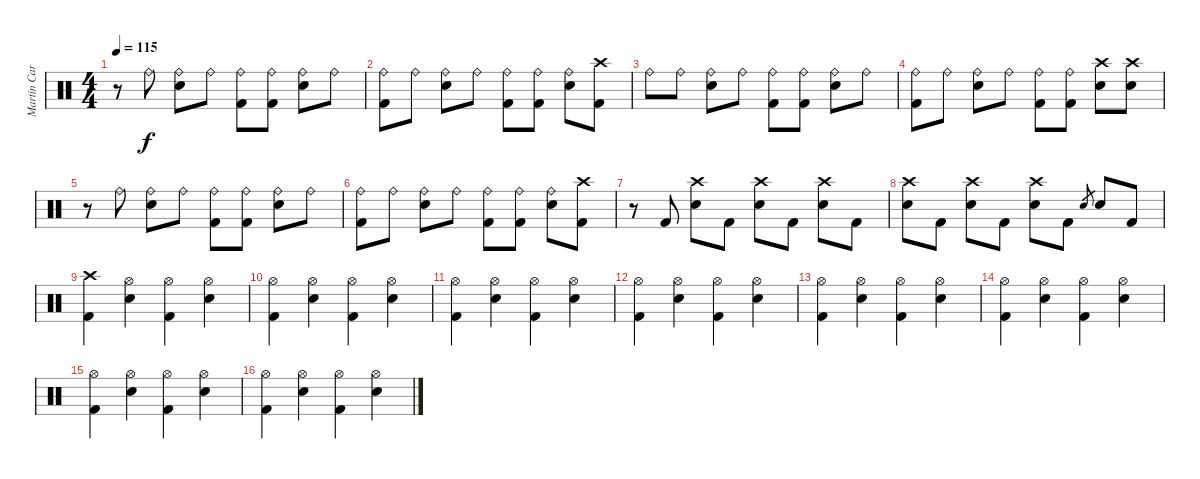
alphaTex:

\track ("Martín Carrizo" "Martín Car") {instrument percussion}
\staff {score}
\articulation defaults
\ts (4 4)
\tempo 115
\clef neutral
\ks c
r.8{dy f} "Ride (bell)".8 ("Ride (bell)" "Snare (hit) 2").8 "Ride (bell)".8 ("Ride (bell)" "Kick (hit) 2").8 ("Ride (bell)" "Kick (hit) 2").8 ("Ride (bell)" "Snare (hit) 2").8 "Ride (bell)".8 |
("Ride (bell)" "Kick (hit) 2").8 "Ride (bell)".8 ("Ride (bell)" "Snare (hit) 2").8 "Ride (bell)".8 ("Ride (bell)" "Kick (hit) 2").8 ("Ride (bell)" "Kick (hit) 2").8 ("Ride (bell)" "Snare (hit) 2").8 ("Crash high (hit)" "Kick (hit) 2").8 |
"Ride (bell)".8 "Ride (bell)".8 ("Ride (bell)" "Snare (hit) 2").8 "Ride (bell)".8 ("Ride (bell)" "Kick (hit) 2").8 ("Ride (bell)" "Kick (hit) 2").8 ("Ride (bell)" "Snare (hit) 2").8 "Ride (bell)".8 |
("Ride (bell)" "Kick (hit) 2").8 "Ride (bell)".8 ("Ride (bell)" "Snare (hit) 2").8 "Ride (bell)".8 ("Ride (bell)" "Kick (hit) 2").8 ("Ride (bell)" "Kick (hit) 2").8 ("Crash high (hit)" "Snare (hit) 2").8 ("Crash high (hit)" "Snare (hit) 2").8 |
r.8 "Ride (bell)".8 ("Ride (bell)" "Snare (hit) 2").8 "Ride (bell)".8 ("Ride (bell)" "Kick (hit) 2").8 ("Ride (bell)" "Kick (hit) 2").8 ("Ride (bell)" "Snare (hit) 2").8 "Ride (bell)".8 |
("Ride (bell)" "Kick (hit) 2").8 "Ride (bell)".8 ("Ride (bell)" "Snare (hit) 2").8 "Ride (bell)".8 ("Ride (bell)" "Kick (hit) 2").8 ("Ride (bell)" "Kick (hit) 2").8 ("Ride (bell)" "Snare (hit) 2").8 ("Crash high (hit)" "Kick (hit) 2").8 |
r.8 "Kick (hit) 2".8 ("Crash high (hit)" "Snare (hit) 2").8 "Kick (hit) 2".8 ("Crash high (hit)" "Snare (hit) 2").8 "Kick (hit) 2".8 ("Crash high (hit)" "Snare (hit) 2").8 "Kick (hit) 2".8 |
("Crash high (hit)" "Snare (hit) 2").8 "Kick (hit) 2".8 ("Crash high (hit)" "Snare (hit) 2").8 "Kick (hit) 2".8 ("Crash high (hit)" "Snare (hit) 2").8 "Kick (hit) 2".8 "Snare (hit) 2".8{gr} "Snare (hit) 2".8 "Kick (hit) 2".8 |
("Crash high (hit)" "Kick (hit) 2").4 ("Hi-Hat (open)" "Snare (hit) 2").4 ("Hi-Hat (open)" "Kick (hit) 2").4 ("Hi-Hat (open)" "Snare (hit) 2").4 |
("Hi-Hat (open)" "Kick (hit) 2").4 ("Hi-Hat (open)" "Snare (hit) 2").4 ("Hi-Hat (open)" "Kick (hit) 2").4 ("Hi-Hat (open)" "Snare (hit) 2").4 |
("Hi-Hat (open)" "Kick (hit) 2").4 ("Hi-Hat (open)" "Snare (hit) 2").4 ("Hi-Hat (open)" "Kick (hit) 2").4 ("Hi-Hat (open)" "Snare (hit) 2").4 |
("Hi-Hat (open)" "Kick (hit) 2").4 ("Hi-Hat (open)" "Snare (hit) 2").4 ("Hi-Hat (open)" "Kick (hit) 2").4 ("Hi-Hat (open)" "Snare (hit) 2").4 |
("Hi-Hat (open)" "Kick (hit) 2").4 ("Hi-Hat (open)" "Snare (hit) 2").4 ("Hi-Hat (open)" "Kick (hit) 2").4 ("Hi-Hat (open)" "Snare (hit) 2").4 |
("Hi-Hat (open)" "Kick (hit) 2").4 ("Hi-Hat (open)" "Snare (hit) 2").4 ("Hi-Hat (open)" "Kick (hit) 2").4 ("Hi-Hat (open)" "Snare (hit) 2").4 |
("Hi-Hat (open)" "Kick (hit) 2").4 ("Hi-Hat (open)" "Snare (hit) 2").4 ("Hi-Hat (open)" "Kick (hit) 2").4 ("Hi-Hat (open)" "Snare (hit) 2").4 |
("Hi-Hat (open)" "Kick (hit) 2").4 ("Hi-Hat (open)" "Snare (hit) 2").4 ("Hi-Hat (open)" "Kick (hit) 2").4 ("Hi-Hat (open)" "Snare (hit) 2").4
